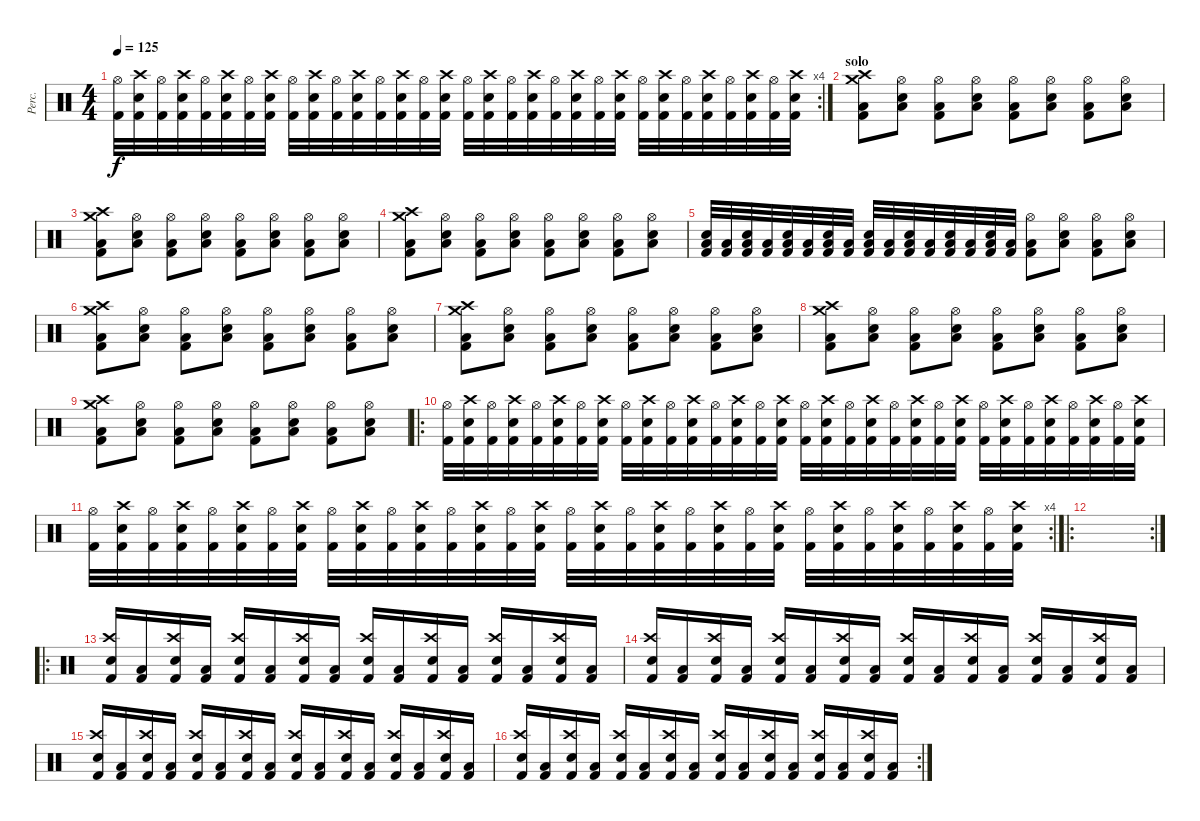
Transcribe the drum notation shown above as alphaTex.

\track ("Perc." "Perc.") {instrument percussion}
\staff {score}
\articulation defaults
\rc 4
\ts (4 4)
\tempo 125
\clef neutral
\ks c
("Hi-Hat (open)" "Kick (hit) 2").32{dy f} ("Crash high (hit)" "Snare (hit) 2" "Kick (hit) 2").32 ("Hi-Hat (open)" "Kick (hit) 2").32 ("Crash high (hit)" "Snare (hit) 2" "Kick (hit) 2").32 ("Hi-Hat (open)" "Kick (hit) 2").32 ("Crash high (hit)" "Snare (hit) 2" "Kick (hit) 2").32 ("Hi-Hat (open)" "Kick (hit) 2").32 ("Crash high (hit)" "Snare (hit) 2" "Kick (hit) 2").32 ("Hi-Hat (open)" "Kick (hit) 2").32 ("Crash high (hit)" "Snare (hit) 2" "Kick (hit) 2").32 ("Hi-Hat (open)" "Kick (hit) 2").32 ("Crash high (hit)" "Snare (hit) 2" "Kick (hit) 2").32 ("Hi-Hat (open)" "Kick (hit) 2").32 ("Crash high (hit)" "Snare (hit) 2" "Kick (hit) 2").32 ("Hi-Hat (open)" "Kick (hit) 2").32 ("Crash high (hit)" "Snare (hit) 2" "Kick (hit) 2").32 ("Hi-Hat (open)" "Kick (hit) 2").32 ("Crash high (hit)" "Snare (hit) 2" "Kick (hit) 2").32 ("Hi-Hat (open)" "Kick (hit) 2").32 ("Crash high (hit)" "Snare (hit) 2" "Kick (hit) 2").32 ("Hi-Hat (open)" "Kick (hit) 2").32 ("Crash high (hit)" "Snare (hit) 2" "Kick (hit) 2").32 ("Hi-Hat (open)" "Kick (hit) 2").32 ("Crash high (hit)" "Snare (hit) 2" "Kick (hit) 2").32 ("Hi-Hat (open)" "Kick (hit) 2").32 ("Crash high (hit)" "Snare (hit) 2" "Kick (hit) 2").32 ("Hi-Hat (open)" "Kick (hit) 2").32 ("Crash high (hit)" "Snare (hit) 2" "Kick (hit) 2").32 ("Hi-Hat (open)" "Kick (hit) 2").32 ("Crash high (hit)" "Snare (hit) 2" "Kick (hit) 2").32 ("Hi-Hat (open)" "Kick (hit) 2").32 ("Crash high (hit)" "Snare (hit) 2" "Kick (hit) 2").32 |
\section ("" "solo")
("Crash medium (hit)" "Crash high (hit)" "Low Floor Tom (hit)" "Kick (hit) 2").8 ("Hi-Hat (open)" "Low Floor Tom (hit)" "Snare (hit) 2").8 ("Hi-Hat (open)" "Low Floor Tom (hit)" "Kick (hit) 2").8 ("Hi-Hat (open)" "Low Floor Tom (hit)" "Snare (hit) 2").8 ("Hi-Hat (open)" "Low Floor Tom (hit)" "Kick (hit) 2").8 ("Hi-Hat (open)" "Low Floor Tom (hit)" "Snare (hit) 2").8 ("Hi-Hat (open)" "Low Floor Tom (hit)" "Kick (hit) 2").8 ("Hi-Hat (open)" "Low Floor Tom (hit)" "Snare (hit) 2").8 |
("Crash medium (hit)" "Crash high (hit)" "Low Floor Tom (hit)" "Kick (hit) 2").8 ("Hi-Hat (open)" "Low Floor Tom (hit)" "Snare (hit) 2").8 ("Hi-Hat (open)" "Low Floor Tom (hit)" "Kick (hit) 2").8 ("Hi-Hat (open)" "Low Floor Tom (hit)" "Snare (hit) 2").8 ("Hi-Hat (open)" "Low Floor Tom (hit)" "Kick (hit) 2").8 ("Hi-Hat (open)" "Low Floor Tom (hit)" "Snare (hit) 2").8 ("Hi-Hat (open)" "Low Floor Tom (hit)" "Kick (hit) 2").8 ("Hi-Hat (open)" "Low Floor Tom (hit)" "Snare (hit) 2").8 |
("Crash medium (hit)" "Crash high (hit)" "Low Floor Tom (hit)" "Kick (hit) 2").8 ("Hi-Hat (open)" "Low Floor Tom (hit)" "Snare (hit) 2").8 ("Hi-Hat (open)" "Low Floor Tom (hit)" "Kick (hit) 2").8 ("Hi-Hat (open)" "Low Floor Tom (hit)" "Snare (hit) 2").8 ("Hi-Hat (open)" "Low Floor Tom (hit)" "Kick (hit) 2").8 ("Hi-Hat (open)" "Low Floor Tom (hit)" "Snare (hit) 2").8 ("Hi-Hat (open)" "Low Floor Tom (hit)" "Kick (hit) 2").8 ("Hi-Hat (open)" "Low Floor Tom (hit)" "Snare (hit) 2").8 |
("Snare (hit) 2" "Low Floor Tom (hit)" "Kick (hit) 2").32 ("Low Floor Tom (hit)" "Kick (hit) 2").32 ("Snare (hit) 2" "Low Floor Tom (hit)" "Kick (hit) 2").32 ("Low Floor Tom (hit)" "Kick (hit) 2").32 ("Snare (hit) 2" "Low Floor Tom (hit)" "Kick (hit) 2").32 ("Low Floor Tom (hit)" "Kick (hit) 2").32 ("Snare (hit) 2" "Low Floor Tom (hit)" "Kick (hit) 2").32 ("Low Floor Tom (hit)" "Kick (hit) 2").32 ("Snare (hit) 2" "Low Floor Tom (hit)" "Kick (hit) 2").32 ("Low Floor Tom (hit)" "Kick (hit) 2").32 ("Snare (hit) 2" "Low Floor Tom (hit)" "Kick (hit) 2").32 ("Low Floor Tom (hit)" "Kick (hit) 2").32 ("Snare (hit) 2" "Low Floor Tom (hit)" "Kick (hit) 2").32 ("Low Floor Tom (hit)" "Kick (hit) 2").32 ("Snare (hit) 2" "Low Floor Tom (hit)" "Kick (hit) 2").32 ("Low Floor Tom (hit)" "Kick (hit) 2").32 ("Hi-Hat (open)" "Low Floor Tom (hit)" "Kick (hit) 2").8 ("Hi-Hat (open)" "Low Floor Tom (hit)" "Snare (hit) 2").8 ("Hi-Hat (open)" "Low Floor Tom (hit)" "Kick (hit) 2").8 ("Hi-Hat (open)" "Low Floor Tom (hit)" "Snare (hit) 2").8 |
("Crash medium (hit)" "Crash high (hit)" "Low Floor Tom (hit)" "Kick (hit) 2").8 ("Hi-Hat (open)" "Low Floor Tom (hit)" "Snare (hit) 2").8 ("Hi-Hat (open)" "Low Floor Tom (hit)" "Kick (hit) 2").8 ("Hi-Hat (open)" "Low Floor Tom (hit)" "Snare (hit) 2").8 ("Hi-Hat (open)" "Low Floor Tom (hit)" "Kick (hit) 2").8 ("Hi-Hat (open)" "Low Floor Tom (hit)" "Snare (hit) 2").8 ("Hi-Hat (open)" "Low Floor Tom (hit)" "Kick (hit) 2").8 ("Hi-Hat (open)" "Low Floor Tom (hit)" "Snare (hit) 2").8 |
("Crash medium (hit)" "Crash high (hit)" "Low Floor Tom (hit)" "Kick (hit) 2").8 ("Hi-Hat (open)" "Low Floor Tom (hit)" "Snare (hit) 2").8 ("Hi-Hat (open)" "Low Floor Tom (hit)" "Kick (hit) 2").8 ("Hi-Hat (open)" "Low Floor Tom (hit)" "Snare (hit) 2").8 ("Hi-Hat (open)" "Low Floor Tom (hit)" "Kick (hit) 2").8 ("Hi-Hat (open)" "Low Floor Tom (hit)" "Snare (hit) 2").8 ("Hi-Hat (open)" "Low Floor Tom (hit)" "Kick (hit) 2").8 ("Hi-Hat (open)" "Low Floor Tom (hit)" "Snare (hit) 2").8 |
("Crash medium (hit)" "Crash high (hit)" "Low Floor Tom (hit)" "Kick (hit) 2").8 ("Hi-Hat (open)" "Low Floor Tom (hit)" "Snare (hit) 2").8 ("Hi-Hat (open)" "Low Floor Tom (hit)" "Kick (hit) 2").8 ("Hi-Hat (open)" "Low Floor Tom (hit)" "Snare (hit) 2").8 ("Hi-Hat (open)" "Low Floor Tom (hit)" "Kick (hit) 2").8 ("Hi-Hat (open)" "Low Floor Tom (hit)" "Snare (hit) 2").8 ("Hi-Hat (open)" "Low Floor Tom (hit)" "Kick (hit) 2").8 ("Hi-Hat (open)" "Low Floor Tom (hit)" "Snare (hit) 2").8 |
("Crash medium (hit)" "Crash high (hit)" "Low Floor Tom (hit)" "Kick (hit) 2").8 ("Hi-Hat (open)" "Low Floor Tom (hit)" "Snare (hit) 2").8 ("Hi-Hat (open)" "Low Floor Tom (hit)" "Kick (hit) 2").8 ("Hi-Hat (open)" "Low Floor Tom (hit)" "Snare (hit) 2").8 ("Hi-Hat (open)" "Low Floor Tom (hit)" "Kick (hit) 2").8 ("Hi-Hat (open)" "Low Floor Tom (hit)" "Snare (hit) 2").8 ("Hi-Hat (open)" "Low Floor Tom (hit)" "Kick (hit) 2").8 ("Hi-Hat (open)" "Low Floor Tom (hit)" "Snare (hit) 2").8 |
\ro
("Hi-Hat (open)" "Kick (hit) 2").32 ("Crash high (hit)" "Snare (hit) 2" "Kick (hit) 2").32 ("Hi-Hat (open)" "Kick (hit) 2").32 ("Crash high (hit)" "Snare (hit) 2" "Kick (hit) 2").32 ("Hi-Hat (open)" "Kick (hit) 2").32 ("Crash high (hit)" "Snare (hit) 2" "Kick (hit) 2").32 ("Hi-Hat (open)" "Kick (hit) 2").32 ("Crash high (hit)" "Snare (hit) 2" "Kick (hit) 2").32 ("Hi-Hat (open)" "Kick (hit) 2").32 ("Crash high (hit)" "Snare (hit) 2" "Kick (hit) 2").32 ("Hi-Hat (open)" "Kick (hit) 2").32 ("Crash high (hit)" "Snare (hit) 2" "Kick (hit) 2").32 ("Hi-Hat (open)" "Kick (hit) 2").32 ("Crash high (hit)" "Snare (hit) 2" "Kick (hit) 2").32 ("Hi-Hat (open)" "Kick (hit) 2").32 ("Crash high (hit)" "Snare (hit) 2" "Kick (hit) 2").32 ("Hi-Hat (open)" "Kick (hit) 2").32 ("Crash high (hit)" "Snare (hit) 2" "Kick (hit) 2").32 ("Hi-Hat (open)" "Kick (hit) 2").32 ("Crash high (hit)" "Snare (hit) 2" "Kick (hit) 2").32 ("Hi-Hat (open)" "Kick (hit) 2").32 ("Crash high (hit)" "Snare (hit) 2" "Kick (hit) 2").32 ("Hi-Hat (open)" "Kick (hit) 2").32 ("Crash high (hit)" "Snare (hit) 2" "Kick (hit) 2").32 ("Hi-Hat (open)" "Kick (hit) 2").32 ("Crash high (hit)" "Snare (hit) 2" "Kick (hit) 2").32 ("Hi-Hat (open)" "Kick (hit) 2").32 ("Crash high (hit)" "Snare (hit) 2" "Kick (hit) 2").32 ("Hi-Hat (open)" "Kick (hit) 2").32 ("Crash high (hit)" "Snare (hit) 2" "Kick (hit) 2").32 ("Hi-Hat (open)" "Kick (hit) 2").32 ("Crash high (hit)" "Snare (hit) 2" "Kick (hit) 2").32 |
\rc 4
("Hi-Hat (open)" "Kick (hit) 2").32 ("Crash high (hit)" "Snare (hit) 2" "Kick (hit) 2").32 ("Hi-Hat (open)" "Kick (hit) 2").32 ("Crash high (hit)" "Snare (hit) 2" "Kick (hit) 2").32 ("Hi-Hat (open)" "Kick (hit) 2").32 ("Crash high (hit)" "Snare (hit) 2" "Kick (hit) 2").32 ("Hi-Hat (open)" "Kick (hit) 2").32 ("Crash high (hit)" "Snare (hit) 2" "Kick (hit) 2").32 ("Hi-Hat (open)" "Kick (hit) 2").32 ("Crash high (hit)" "Snare (hit) 2" "Kick (hit) 2").32 ("Hi-Hat (open)" "Kick (hit) 2").32 ("Crash high (hit)" "Snare (hit) 2" "Kick (hit) 2").32 ("Hi-Hat (open)" "Kick (hit) 2").32 ("Crash high (hit)" "Snare (hit) 2" "Kick (hit) 2").32 ("Hi-Hat (open)" "Kick (hit) 2").32 ("Crash high (hit)" "Snare (hit) 2" "Kick (hit) 2").32 ("Hi-Hat (open)" "Kick (hit) 2").32 ("Crash high (hit)" "Snare (hit) 2" "Kick (hit) 2").32 ("Hi-Hat (open)" "Kick (hit) 2").32 ("Crash high (hit)" "Snare (hit) 2" "Kick (hit) 2").32 ("Hi-Hat (open)" "Kick (hit) 2").32 ("Crash high (hit)" "Snare (hit) 2" "Kick (hit) 2").32 ("Hi-Hat (open)" "Kick (hit) 2").32 ("Crash high (hit)" "Snare (hit) 2" "Kick (hit) 2").32 ("Hi-Hat (open)" "Kick (hit) 2").32 ("Crash high (hit)" "Snare (hit) 2" "Kick (hit) 2").32 ("Hi-Hat (open)" "Kick (hit) 2").32 ("Crash high (hit)" "Snare (hit) 2" "Kick (hit) 2").32 ("Hi-Hat (open)" "Kick (hit) 2").32 ("Crash high (hit)" "Snare (hit) 2" "Kick (hit) 2").32 ("Hi-Hat (open)" "Kick (hit) 2").32 ("Crash high (hit)" "Snare (hit) 2" "Kick (hit) 2").32 |
\ro
\rc 2
|
\ro
("Crash high (hit)" "Snare (hit) 2" "Kick (hit) 2").16 ("Low Floor Tom (hit)" "Kick (hit) 2").16 ("Crash high (hit)" "Snare (hit) 2" "Kick (hit) 2").16 ("Low Floor Tom (hit)" "Kick (hit) 2").16 ("Crash high (hit)" "Snare (hit) 2" "Kick (hit) 2").16 ("Low Floor Tom (hit)" "Kick (hit) 2").16 ("Crash high (hit)" "Snare (hit) 2" "Kick (hit) 2").16 ("Low Floor Tom (hit)" "Kick (hit) 2").16 ("Crash high (hit)" "Snare (hit) 2" "Kick (hit) 2").16 ("Low Floor Tom (hit)" "Kick (hit) 2").16 ("Crash high (hit)" "Snare (hit) 2" "Kick (hit) 2").16 ("Low Floor Tom (hit)" "Kick (hit) 2").16 ("Crash high (hit)" "Snare (hit) 2" "Kick (hit) 2").16 ("Low Floor Tom (hit)" "Kick (hit) 2").16 ("Crash high (hit)" "Snare (hit) 2" "Kick (hit) 2").16 ("Low Floor Tom (hit)" "Kick (hit) 2").16 |
("Crash high (hit)" "Snare (hit) 2" "Kick (hit) 2").16 ("Low Floor Tom (hit)" "Kick (hit) 2").16 ("Crash high (hit)" "Snare (hit) 2" "Kick (hit) 2").16 ("Low Floor Tom (hit)" "Kick (hit) 2").16 ("Crash high (hit)" "Snare (hit) 2" "Kick (hit) 2").16 ("Low Floor Tom (hit)" "Kick (hit) 2").16 ("Crash high (hit)" "Snare (hit) 2" "Kick (hit) 2").16 ("Low Floor Tom (hit)" "Kick (hit) 2").16 ("Crash high (hit)" "Snare (hit) 2" "Kick (hit) 2").16 ("Low Floor Tom (hit)" "Kick (hit) 2").16 ("Crash high (hit)" "Snare (hit) 2" "Kick (hit) 2").16 ("Low Floor Tom (hit)" "Kick (hit) 2").16 ("Crash high (hit)" "Snare (hit) 2" "Kick (hit) 2").16 ("Low Floor Tom (hit)" "Kick (hit) 2").16 ("Crash high (hit)" "Snare (hit) 2" "Kick (hit) 2").16 ("Low Floor Tom (hit)" "Kick (hit) 2").16 |
("Crash high (hit)" "Snare (hit) 2" "Kick (hit) 2").16 ("Low Floor Tom (hit)" "Kick (hit) 2").16 ("Crash high (hit)" "Snare (hit) 2" "Kick (hit) 2").16 ("Low Floor Tom (hit)" "Kick (hit) 2").16 ("Crash high (hit)" "Snare (hit) 2" "Kick (hit) 2").16 ("Low Floor Tom (hit)" "Kick (hit) 2").16 ("Crash high (hit)" "Snare (hit) 2" "Kick (hit) 2").16 ("Low Floor Tom (hit)" "Kick (hit) 2").16 ("Crash high (hit)" "Snare (hit) 2" "Kick (hit) 2").16 ("Low Floor Tom (hit)" "Kick (hit) 2").16 ("Crash high (hit)" "Snare (hit) 2" "Kick (hit) 2").16 ("Low Floor Tom (hit)" "Kick (hit) 2").16 ("Crash high (hit)" "Snare (hit) 2" "Kick (hit) 2").16 ("Low Floor Tom (hit)" "Kick (hit) 2").16 ("Crash high (hit)" "Snare (hit) 2" "Kick (hit) 2").16 ("Low Floor Tom (hit)" "Kick (hit) 2").16 |
\rc 2
("Crash high (hit)" "Snare (hit) 2" "Kick (hit) 2").16 ("Low Floor Tom (hit)" "Kick (hit) 2").16 ("Crash high (hit)" "Snare (hit) 2" "Kick (hit) 2").16 ("Low Floor Tom (hit)" "Kick (hit) 2").16 ("Crash high (hit)" "Snare (hit) 2" "Kick (hit) 2").16 ("Low Floor Tom (hit)" "Kick (hit) 2").16 ("Crash high (hit)" "Snare (hit) 2" "Kick (hit) 2").16 ("Low Floor Tom (hit)" "Kick (hit) 2").16 ("Crash high (hit)" "Snare (hit) 2" "Kick (hit) 2").16 ("Low Floor Tom (hit)" "Kick (hit) 2").16 ("Crash high (hit)" "Snare (hit) 2" "Kick (hit) 2").16 ("Low Floor Tom (hit)" "Kick (hit) 2").16 ("Crash high (hit)" "Snare (hit) 2" "Kick (hit) 2").16 ("Low Floor Tom (hit)" "Kick (hit) 2").16 ("Crash high (hit)" "Snare (hit) 2" "Kick (hit) 2").16 ("Low Floor Tom (hit)" "Kick (hit) 2").16
